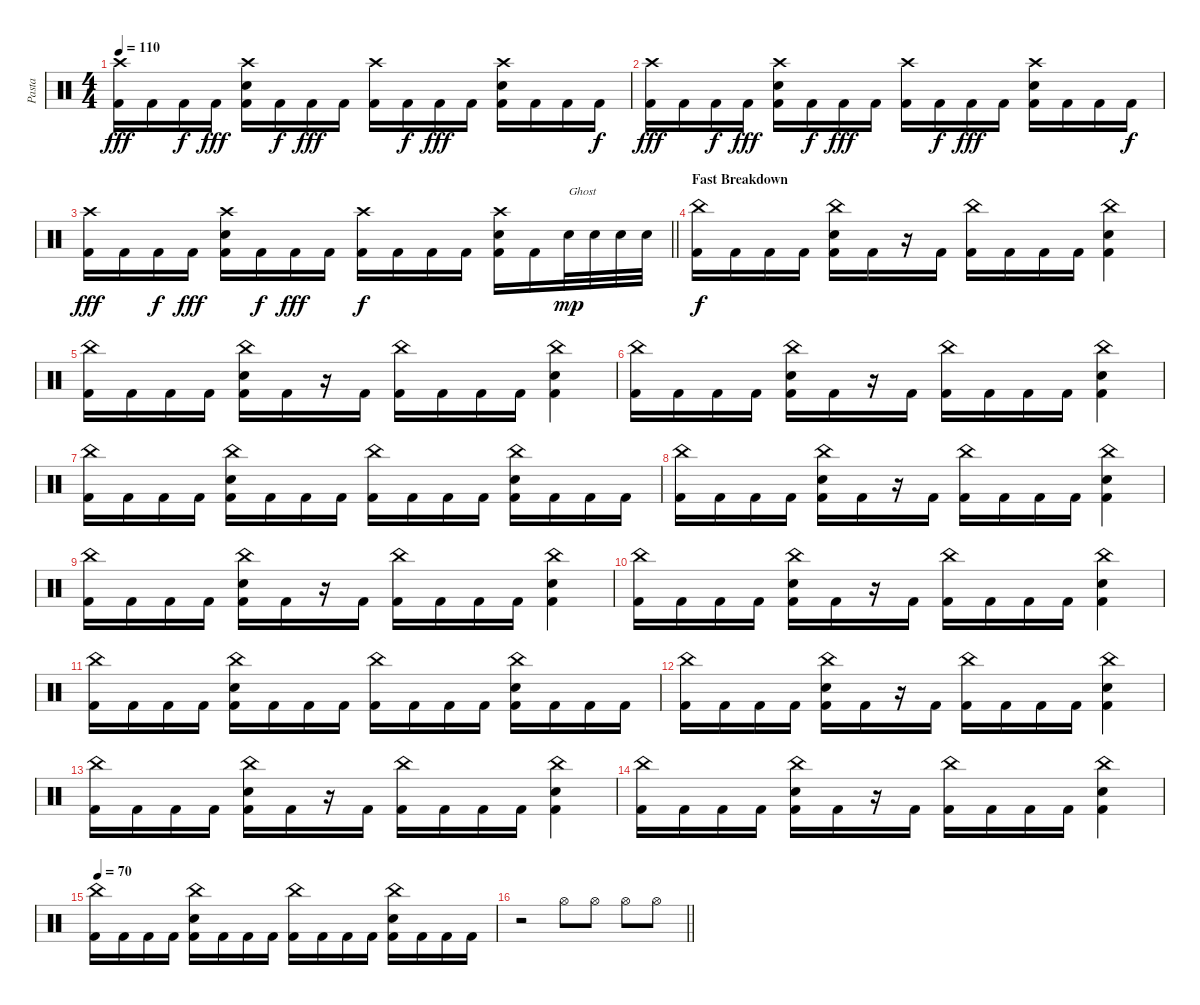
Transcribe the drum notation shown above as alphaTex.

\track ("Pasta" "Pasta") {instrument percussion}
\staff {score}
\articulation defaults
\ts (4 4)
\tempo 110
\clef neutral
\ks c
("Crash high (hit)" "Kick (hit) 2").16{dy fff} "Kick (hit) 2".16 "Kick (hit) 2".16{dy f} "Kick (hit) 2".16{dy fff} ("Crash high (hit)" "Electric Snare (hit)" "Kick (hit) 2").16 "Kick (hit) 2".16{dy f} "Kick (hit) 2".16{dy fff} "Kick (hit) 2".16 ("Crash high (hit)" "Kick (hit) 2").16 "Kick (hit) 2".16{dy f} "Kick (hit) 2".16{dy fff} "Kick (hit) 2".16 ("Crash high (hit)" "Electric Snare (hit)" "Kick (hit) 2").16 "Kick (hit) 2".16 "Kick (hit) 2".16 "Kick (hit) 2".16{dy f} |
("Crash high (hit)" "Kick (hit) 2").16{dy fff} "Kick (hit) 2".16 "Kick (hit) 2".16{dy f} "Kick (hit) 2".16{dy fff} ("Crash high (hit)" "Electric Snare (hit)" "Kick (hit) 2").16 "Kick (hit) 2".16{dy f} "Kick (hit) 2".16{dy fff} "Kick (hit) 2".16 ("Crash high (hit)" "Kick (hit) 2").16 "Kick (hit) 2".16{dy f} "Kick (hit) 2".16{dy fff} "Kick (hit) 2".16 ("Crash high (hit)" "Electric Snare (hit)" "Kick (hit) 2").16 "Kick (hit) 2".16 "Kick (hit) 2".16 "Kick (hit) 2".16{dy f} |
\barLineRight lightlight
("Crash high (hit)" "Kick (hit) 2").16{dy fff} "Kick (hit) 2".16 "Kick (hit) 2".16{dy f} "Kick (hit) 2".16{dy fff} ("Crash high (hit)" "Electric Snare (hit)" "Kick (hit) 2").16 "Kick (hit) 2".16{dy f} "Kick (hit) 2".16{dy fff} "Kick (hit) 2".16 ("Crash high (hit)" "Kick (hit) 2").16{dy f} "Kick (hit) 2".16 "Kick (hit) 2".16 "Kick (hit) 2".16 ("Crash high (hit)" "Electric Snare (hit)" "Kick (hit) 2").16 "Kick (hit) 2".16 "Electric Snare (hit)".32{txt "Ghost" dy mp} "Electric Snare (hit)".32 "Electric Snare (hit)".32 "Electric Snare (hit)".32 |
\section ("" "Fast Breakdown")
("China (hit)" "Kick (hit) 2").16{dy f} "Kick (hit) 2".16 "Kick (hit) 2".16 "Kick (hit) 2".16 ("China (hit)" "Electric Snare (hit)" "Kick (hit) 2").16 "Kick (hit) 2".16 r.16 "Kick (hit) 2".16 ("China (hit)" "Kick (hit) 2").16 "Kick (hit) 2".16 "Kick (hit) 2".16 "Kick (hit) 2".16 ("China (hit)" "Electric Snare (hit)" "Kick (hit) 2").4 |
("China (hit)" "Kick (hit) 2").16 "Kick (hit) 2".16 "Kick (hit) 2".16 "Kick (hit) 2".16 ("China (hit)" "Electric Snare (hit)" "Kick (hit) 2").16 "Kick (hit) 2".16 r.16 "Kick (hit) 2".16 ("China (hit)" "Kick (hit) 2").16 "Kick (hit) 2".16 "Kick (hit) 2".16 "Kick (hit) 2".16 ("China (hit)" "Electric Snare (hit)" "Kick (hit) 2").4 |
("China (hit)" "Kick (hit) 2").16 "Kick (hit) 2".16 "Kick (hit) 2".16 "Kick (hit) 2".16 ("China (hit)" "Electric Snare (hit)" "Kick (hit) 2").16 "Kick (hit) 2".16 r.16 "Kick (hit) 2".16 ("China (hit)" "Kick (hit) 2").16 "Kick (hit) 2".16 "Kick (hit) 2".16 "Kick (hit) 2".16 ("China (hit)" "Electric Snare (hit)" "Kick (hit) 2").4 |
("China (hit)" "Kick (hit) 2").16 "Kick (hit) 2".16 "Kick (hit) 2".16 "Kick (hit) 2".16 ("China (hit)" "Electric Snare (hit)" "Kick (hit) 2").16 "Kick (hit) 2".16 "Kick (hit) 2".16 "Kick (hit) 2".16 ("China (hit)" "Kick (hit) 2").16 "Kick (hit) 2".16 "Kick (hit) 2".16 "Kick (hit) 2".16 ("China (hit)" "Electric Snare (hit)" "Kick (hit) 2").16 "Kick (hit) 2".16 "Kick (hit) 2".16 "Kick (hit) 2".16 |
("China (hit)" "Kick (hit) 2").16 "Kick (hit) 2".16 "Kick (hit) 2".16 "Kick (hit) 2".16 ("China (hit)" "Electric Snare (hit)" "Kick (hit) 2").16 "Kick (hit) 2".16 r.16 "Kick (hit) 2".16 ("China (hit)" "Kick (hit) 2").16 "Kick (hit) 2".16 "Kick (hit) 2".16 "Kick (hit) 2".16 ("China (hit)" "Electric Snare (hit)" "Kick (hit) 2").4 |
("China (hit)" "Kick (hit) 2").16 "Kick (hit) 2".16 "Kick (hit) 2".16 "Kick (hit) 2".16 ("China (hit)" "Electric Snare (hit)" "Kick (hit) 2").16 "Kick (hit) 2".16 r.16 "Kick (hit) 2".16 ("China (hit)" "Kick (hit) 2").16 "Kick (hit) 2".16 "Kick (hit) 2".16 "Kick (hit) 2".16 ("China (hit)" "Electric Snare (hit)" "Kick (hit) 2").4 |
("China (hit)" "Kick (hit) 2").16 "Kick (hit) 2".16 "Kick (hit) 2".16 "Kick (hit) 2".16 ("China (hit)" "Electric Snare (hit)" "Kick (hit) 2").16 "Kick (hit) 2".16 r.16 "Kick (hit) 2".16 ("China (hit)" "Kick (hit) 2").16 "Kick (hit) 2".16 "Kick (hit) 2".16 "Kick (hit) 2".16 ("China (hit)" "Electric Snare (hit)" "Kick (hit) 2").4 |
("China (hit)" "Kick (hit) 2").16 "Kick (hit) 2".16 "Kick (hit) 2".16 "Kick (hit) 2".16 ("China (hit)" "Electric Snare (hit)" "Kick (hit) 2").16 "Kick (hit) 2".16 "Kick (hit) 2".16 "Kick (hit) 2".16 ("China (hit)" "Kick (hit) 2").16 "Kick (hit) 2".16 "Kick (hit) 2".16 "Kick (hit) 2".16 ("China (hit)" "Electric Snare (hit)" "Kick (hit) 2").16 "Kick (hit) 2".16 "Kick (hit) 2".16 "Kick (hit) 2".16 |
("China (hit)" "Kick (hit) 2").16 "Kick (hit) 2".16 "Kick (hit) 2".16 "Kick (hit) 2".16 ("China (hit)" "Electric Snare (hit)" "Kick (hit) 2").16 "Kick (hit) 2".16 r.16 "Kick (hit) 2".16 ("China (hit)" "Kick (hit) 2").16 "Kick (hit) 2".16 "Kick (hit) 2".16 "Kick (hit) 2".16 ("China (hit)" "Electric Snare (hit)" "Kick (hit) 2").4 |
("China (hit)" "Kick (hit) 2").16 "Kick (hit) 2".16 "Kick (hit) 2".16 "Kick (hit) 2".16 ("China (hit)" "Electric Snare (hit)" "Kick (hit) 2").16 "Kick (hit) 2".16 r.16 "Kick (hit) 2".16 ("China (hit)" "Kick (hit) 2").16 "Kick (hit) 2".16 "Kick (hit) 2".16 "Kick (hit) 2".16 ("China (hit)" "Electric Snare (hit)" "Kick (hit) 2").4 |
("China (hit)" "Kick (hit) 2").16 "Kick (hit) 2".16 "Kick (hit) 2".16 "Kick (hit) 2".16 ("China (hit)" "Electric Snare (hit)" "Kick (hit) 2").16 "Kick (hit) 2".16 r.16 "Kick (hit) 2".16 ("China (hit)" "Kick (hit) 2").16 "Kick (hit) 2".16 "Kick (hit) 2".16 "Kick (hit) 2".16 ("China (hit)" "Electric Snare (hit)" "Kick (hit) 2").4 |
\tempo 70
("China (hit)" "Kick (hit) 2").16 "Kick (hit) 2".16 "Kick (hit) 2".16 "Kick (hit) 2".16 ("China (hit)" "Electric Snare (hit)" "Kick (hit) 2").16 "Kick (hit) 2".16 "Kick (hit) 2".16 "Kick (hit) 2".16 ("China (hit)" "Kick (hit) 2").16 "Kick (hit) 2".16 "Kick (hit) 2".16 "Kick (hit) 2".16 ("China (hit)" "Electric Snare (hit)" "Kick (hit) 2").16 "Kick (hit) 2".16 "Kick (hit) 2".16 "Kick (hit) 2".16 |
\barLineRight lightlight
r.2 "Hi-Hat (open)".8 "Hi-Hat (open)".8 "Hi-Hat (open)".8 "Hi-Hat (open)".8
